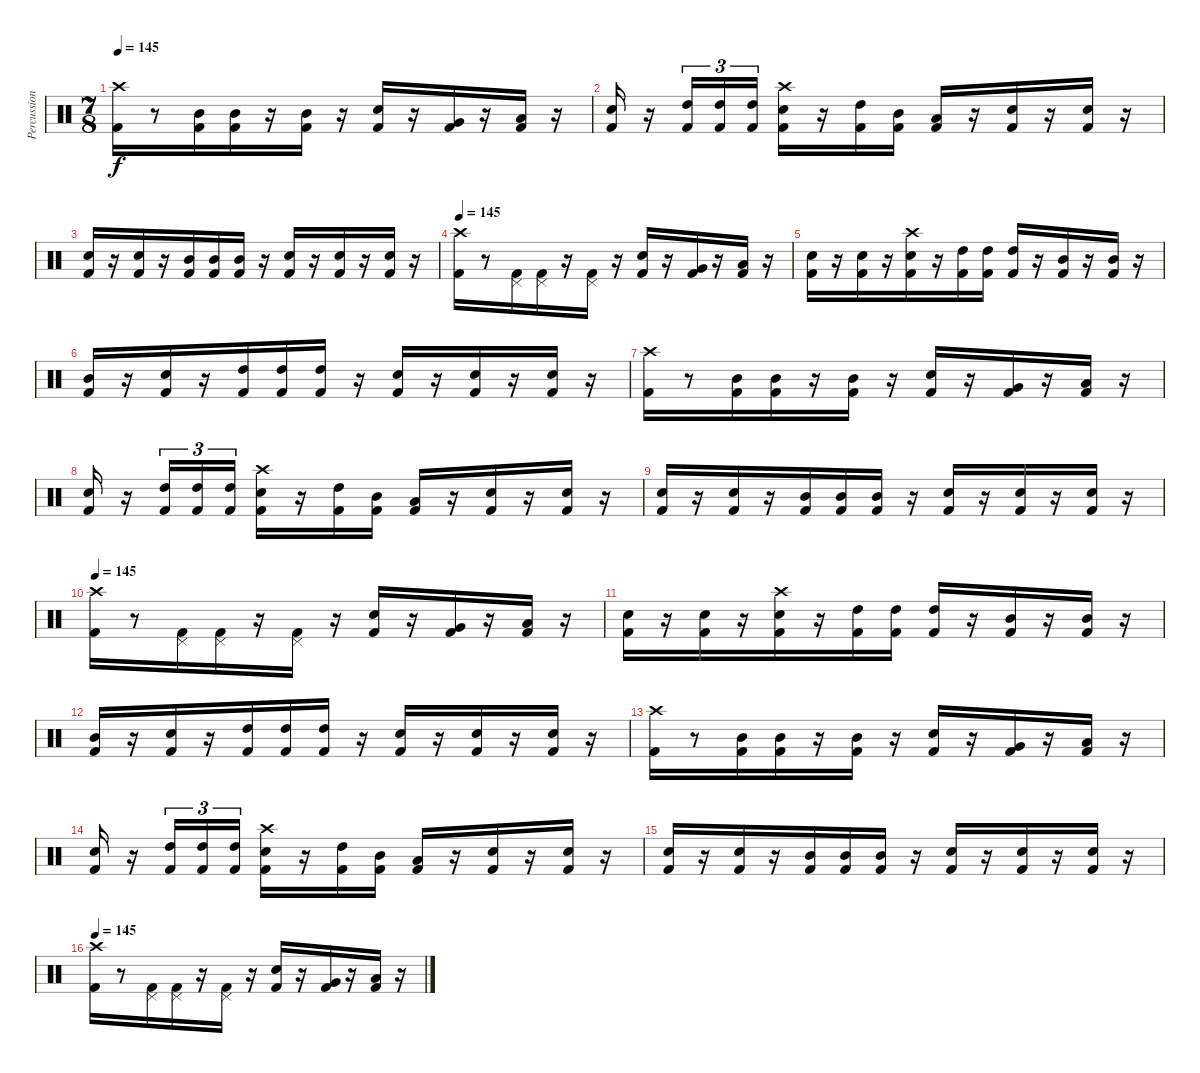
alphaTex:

\track ("Percussion" "Percussion") {instrument percussion}
\staff {score}
\articulation defaults
\ts (7 8)
\tempo 145
\clef neutral
\ks c
("Crash high (hit)" "Kick (hit) 2").16{dy f} r.8 ("Mid Tom (hit)" "Kick (hit) 2").16 ("Mid Tom (hit)" "Kick (hit) 2").16 r.16 ("Mid Tom (hit)" "Kick (hit) 2").16 r.16 ("Snare (hit) 2" "Kick (hit) 2").16 r.16 ("Very Low Tom (hit)" "Kick (hit) 2").16 r.16 ("Low Tom (hit)" "Kick (hit) 2").16 r.16 |
("Electric Snare (hit)" "Kick (hit) 2").16 r.16 ("High Tom (hit)" "Kick (hit) 2").16{tu (3 2)} ("High Tom (hit)" "Kick (hit) 2").16{tu (3 2)} ("High Tom (hit)" "Kick (hit) 2").16{tu (3 2)} ("Crash high (hit)" "Snare (hit) 2" "Kick (hit) 2").16 r.16 ("High Tom (hit)" "Kick (hit) 2").16 ("Mid Tom (hit)" "Kick (hit) 2").16 ("Low Tom (hit)" "Kick (hit) 2").16 r.16 ("Snare (hit) 2" "Kick (hit) 2").16 r.16 ("Snare (hit) 2" "Kick (hit) 2").16 r.16 |
("Snare (hit) 2" "Kick (hit) 2").16 r.16 ("Snare (hit) 2" "Kick (hit) 2").16 r.16 ("Mid Tom (hit)" "Kick (hit) 2").16 ("Mid Tom (hit)" "Kick (hit) 2").16 ("Mid Tom (hit)" "Kick (hit) 2").16 r.16 ("Snare (hit) 2" "Kick (hit) 2").16 r.16 ("Snare (hit) 2" "Kick (hit) 2").16 r.16 ("Snare (hit) 2" "Kick (hit) 2").16 r.16 |
\tempo 145
("Crash high (hit)" "Kick (hit) 2").16 r.8 ("Pedal Hi-Hat (hit)" "Kick (hit) 2").16 ("Pedal Hi-Hat (hit)" "Kick (hit) 2").16 r.16 ("Pedal Hi-Hat (hit)" "Kick (hit) 2").16 r.16 ("Snare (hit) 2" "Kick (hit) 2").16 r.16 ("Very Low Tom (hit)" "Kick (hit) 2").16 r.16 ("Low Tom (hit)" "Kick (hit) 2").16 r.16 |
("Snare (hit) 2" "Kick (hit) 2").16 r.16 ("Snare (hit) 2" "Kick (hit) 2").16 r.16 ("Crash high (hit)" "Snare (hit) 2" "Kick (hit) 2").16 r.16 ("High Tom (hit)" "Kick (hit) 2").16 ("High Tom (hit)" "Kick (hit) 2").16 ("High Tom (hit)" "Kick (hit) 2").16 r.16 ("Mid Tom (hit)" "Kick (hit) 2").16 r.16 ("Mid Tom (hit)" "Kick (hit) 2").16 r.16 |
("Mid Tom (hit)" "Kick (hit) 2").16 r.16 ("Snare (hit) 2" "Kick (hit) 2").16 r.16 ("High Tom (hit)" "Kick (hit) 2").16 ("High Tom (hit)" "Kick (hit) 2").16 ("High Tom (hit)" "Kick (hit) 2").16 r.16 ("Snare (hit) 2" "Kick (hit) 2").16 r.16 ("Snare (hit) 2" "Kick (hit) 2").16 r.16 ("Snare (hit) 2" "Kick (hit) 2").16 r.16 |
("Crash high (hit)" "Kick (hit) 2").16 r.8 ("Mid Tom (hit)" "Kick (hit) 2").16 ("Mid Tom (hit)" "Kick (hit) 2").16 r.16 ("Mid Tom (hit)" "Kick (hit) 2").16 r.16 ("Snare (hit) 2" "Kick (hit) 2").16 r.16 ("Very Low Tom (hit)" "Kick (hit) 2").16 r.16 ("Low Tom (hit)" "Kick (hit) 2").16 r.16 |
("Electric Snare (hit)" "Kick (hit) 2").16 r.16 ("High Tom (hit)" "Kick (hit) 2").16{tu (3 2)} ("High Tom (hit)" "Kick (hit) 2").16{tu (3 2)} ("High Tom (hit)" "Kick (hit) 2").16{tu (3 2)} ("Crash high (hit)" "Snare (hit) 2" "Kick (hit) 2").16 r.16 ("High Tom (hit)" "Kick (hit) 2").16 ("Mid Tom (hit)" "Kick (hit) 2").16 ("Low Tom (hit)" "Kick (hit) 2").16 r.16 ("Snare (hit) 2" "Kick (hit) 2").16 r.16 ("Snare (hit) 2" "Kick (hit) 2").16 r.16 |
("Snare (hit) 2" "Kick (hit) 2").16 r.16 ("Snare (hit) 2" "Kick (hit) 2").16 r.16 ("Mid Tom (hit)" "Kick (hit) 2").16 ("Mid Tom (hit)" "Kick (hit) 2").16 ("Mid Tom (hit)" "Kick (hit) 2").16 r.16 ("Snare (hit) 2" "Kick (hit) 2").16 r.16 ("Snare (hit) 2" "Kick (hit) 2").16 r.16 ("Snare (hit) 2" "Kick (hit) 2").16 r.16 |
\tempo 145
("Crash high (hit)" "Kick (hit) 2").16 r.8 ("Pedal Hi-Hat (hit)" "Kick (hit) 2").16 ("Pedal Hi-Hat (hit)" "Kick (hit) 2").16 r.16 ("Pedal Hi-Hat (hit)" "Kick (hit) 2").16 r.16 ("Snare (hit) 2" "Kick (hit) 2").16 r.16 ("Very Low Tom (hit)" "Kick (hit) 2").16 r.16 ("Low Tom (hit)" "Kick (hit) 2").16 r.16 |
("Snare (hit) 2" "Kick (hit) 2").16 r.16 ("Snare (hit) 2" "Kick (hit) 2").16 r.16 ("Crash high (hit)" "Snare (hit) 2" "Kick (hit) 2").16 r.16 ("High Tom (hit)" "Kick (hit) 2").16 ("High Tom (hit)" "Kick (hit) 2").16 ("High Tom (hit)" "Kick (hit) 2").16 r.16 ("Mid Tom (hit)" "Kick (hit) 2").16 r.16 ("Mid Tom (hit)" "Kick (hit) 2").16 r.16 |
("Mid Tom (hit)" "Kick (hit) 2").16 r.16 ("Snare (hit) 2" "Kick (hit) 2").16 r.16 ("High Tom (hit)" "Kick (hit) 2").16 ("High Tom (hit)" "Kick (hit) 2").16 ("High Tom (hit)" "Kick (hit) 2").16 r.16 ("Snare (hit) 2" "Kick (hit) 2").16 r.16 ("Snare (hit) 2" "Kick (hit) 2").16 r.16 ("Snare (hit) 2" "Kick (hit) 2").16 r.16 |
("Crash high (hit)" "Kick (hit) 2").16 r.8 ("Mid Tom (hit)" "Kick (hit) 2").16 ("Mid Tom (hit)" "Kick (hit) 2").16 r.16 ("Mid Tom (hit)" "Kick (hit) 2").16 r.16 ("Snare (hit) 2" "Kick (hit) 2").16 r.16 ("Very Low Tom (hit)" "Kick (hit) 2").16 r.16 ("Low Tom (hit)" "Kick (hit) 2").16 r.16 |
("Electric Snare (hit)" "Kick (hit) 2").16 r.16 ("High Tom (hit)" "Kick (hit) 2").16{tu (3 2)} ("High Tom (hit)" "Kick (hit) 2").16{tu (3 2)} ("High Tom (hit)" "Kick (hit) 2").16{tu (3 2)} ("Crash high (hit)" "Snare (hit) 2" "Kick (hit) 2").16 r.16 ("High Tom (hit)" "Kick (hit) 2").16 ("Mid Tom (hit)" "Kick (hit) 2").16 ("Low Tom (hit)" "Kick (hit) 2").16 r.16 ("Snare (hit) 2" "Kick (hit) 2").16 r.16 ("Snare (hit) 2" "Kick (hit) 2").16 r.16 |
("Snare (hit) 2" "Kick (hit) 2").16 r.16 ("Snare (hit) 2" "Kick (hit) 2").16 r.16 ("Mid Tom (hit)" "Kick (hit) 2").16 ("Mid Tom (hit)" "Kick (hit) 2").16 ("Mid Tom (hit)" "Kick (hit) 2").16 r.16 ("Snare (hit) 2" "Kick (hit) 2").16 r.16 ("Snare (hit) 2" "Kick (hit) 2").16 r.16 ("Snare (hit) 2" "Kick (hit) 2").16 r.16 |
\tempo 145
("Crash high (hit)" "Kick (hit) 2").16 r.8 ("Pedal Hi-Hat (hit)" "Kick (hit) 2").16 ("Pedal Hi-Hat (hit)" "Kick (hit) 2").16 r.16 ("Pedal Hi-Hat (hit)" "Kick (hit) 2").16 r.16 ("Snare (hit) 2" "Kick (hit) 2").16 r.16 ("Very Low Tom (hit)" "Kick (hit) 2").16 r.16 ("Low Tom (hit)" "Kick (hit) 2").16 r.16
